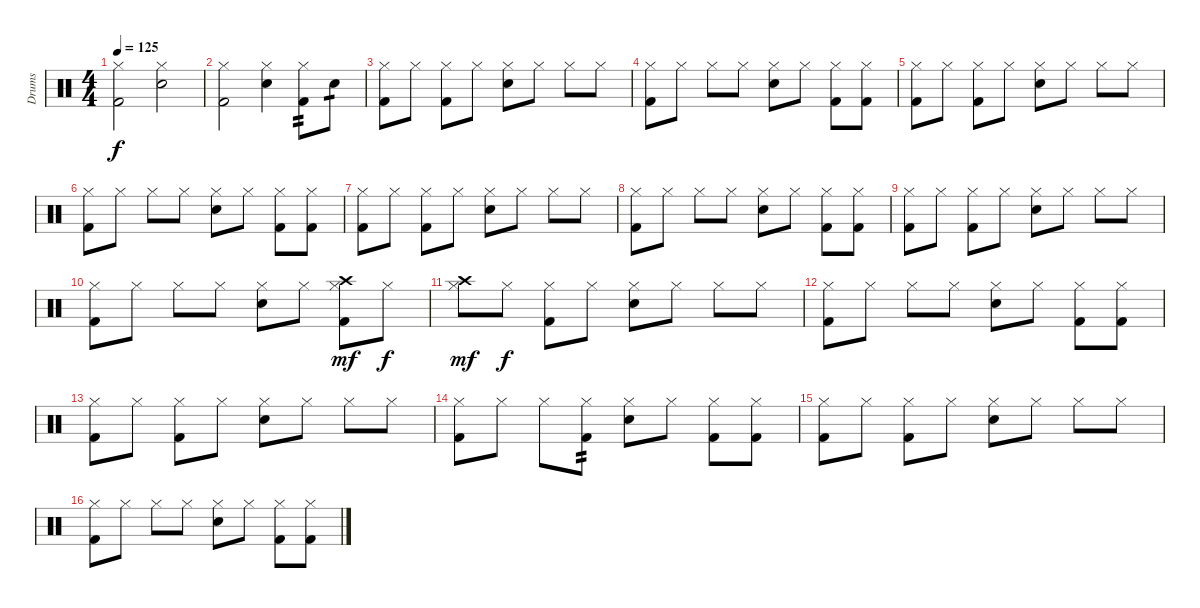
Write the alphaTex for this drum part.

\track ("Drums" "Drums") {instrument percussion}
\staff {score}
\articulation defaults
\ts (4 4)
\tempo 125
\clef neutral
\ks c
("Hi-Hat (closed)" "Kick (hit) 2").2{dy f} ("Hi-Hat (closed)" "Snare (hit) 2").2 |
("Hi-Hat (closed)" "Kick (hit) 2").2 ("Hi-Hat (closed)" "Snare (hit) 2").4 ("Hi-Hat (closed)" "Kick (hit) 2").8{tp 2} "Snare (hit) 2".8{tp 1} |
("Kick (hit) 2" "Hi-Hat (closed)").8 "Hi-Hat (closed)".8 ("Kick (hit) 2" "Hi-Hat (closed)").8 "Hi-Hat (closed)".8 ("Snare (hit) 2" "Hi-Hat (closed)").8 "Hi-Hat (closed)".8 "Hi-Hat (closed)".8 "Hi-Hat (closed)".8 |
("Kick (hit) 2" "Hi-Hat (closed)").8 "Hi-Hat (closed)".8 "Hi-Hat (closed)".8 "Hi-Hat (closed)".8 ("Snare (hit) 2" "Hi-Hat (closed)").8 "Hi-Hat (closed)".8 ("Kick (hit) 2" "Hi-Hat (closed)").8 ("Kick (hit) 2" "Hi-Hat (closed)").8 |
("Kick (hit) 2" "Hi-Hat (closed)").8 "Hi-Hat (closed)".8 ("Kick (hit) 2" "Hi-Hat (closed)").8 "Hi-Hat (closed)".8 ("Snare (hit) 2" "Hi-Hat (closed)").8 "Hi-Hat (closed)".8 "Hi-Hat (closed)".8 "Hi-Hat (closed)".8 |
("Kick (hit) 2" "Hi-Hat (closed)").8 "Hi-Hat (closed)".8 "Hi-Hat (closed)".8 "Hi-Hat (closed)".8 ("Snare (hit) 2" "Hi-Hat (closed)").8 "Hi-Hat (closed)".8 ("Kick (hit) 2" "Hi-Hat (closed)").8 ("Kick (hit) 2" "Hi-Hat (closed)").8 |
("Kick (hit) 2" "Hi-Hat (closed)").8 "Hi-Hat (closed)".8 ("Kick (hit) 2" "Hi-Hat (closed)").8 "Hi-Hat (closed)".8 ("Snare (hit) 2" "Hi-Hat (closed)").8 "Hi-Hat (closed)".8 "Hi-Hat (closed)".8 "Hi-Hat (closed)".8 |
("Kick (hit) 2" "Hi-Hat (closed)").8 "Hi-Hat (closed)".8 "Hi-Hat (closed)".8 "Hi-Hat (closed)".8 ("Snare (hit) 2" "Hi-Hat (closed)").8 "Hi-Hat (closed)".8 ("Kick (hit) 2" "Hi-Hat (closed)").8 ("Kick (hit) 2" "Hi-Hat (closed)").8 |
("Kick (hit) 2" "Hi-Hat (closed)").8 "Hi-Hat (closed)".8 ("Kick (hit) 2" "Hi-Hat (closed)").8 "Hi-Hat (closed)".8 ("Snare (hit) 2" "Hi-Hat (closed)").8 "Hi-Hat (closed)".8 "Hi-Hat (closed)".8 "Hi-Hat (closed)".8 |
("Kick (hit) 2" "Hi-Hat (closed)").8 "Hi-Hat (closed)".8 "Hi-Hat (closed)".8 "Hi-Hat (closed)".8 ("Snare (hit) 2" "Hi-Hat (closed)").8 "Hi-Hat (closed)".8 ("Kick (hit) 2" "Crash high (hit)" "Hi-Hat (closed)").8{dy mf} "Hi-Hat (closed)".8{dy f} |
("Crash high (hit)" "Hi-Hat (closed)").8{dy mf} "Hi-Hat (closed)".8{dy f} ("Kick (hit) 2" "Hi-Hat (closed)").8 "Hi-Hat (closed)".8 ("Snare (hit) 2" "Hi-Hat (closed)").8 "Hi-Hat (closed)".8 "Hi-Hat (closed)".8 "Hi-Hat (closed)".8 |
("Kick (hit) 2" "Hi-Hat (closed)").8 "Hi-Hat (closed)".8 "Hi-Hat (closed)".8 "Hi-Hat (closed)".8 ("Snare (hit) 2" "Hi-Hat (closed)").8 "Hi-Hat (closed)".8 ("Kick (hit) 2" "Hi-Hat (closed)").8 ("Kick (hit) 2" "Hi-Hat (closed)").8 |
("Kick (hit) 2" "Hi-Hat (closed)").8 "Hi-Hat (closed)".8 ("Kick (hit) 2" "Hi-Hat (closed)").8 "Hi-Hat (closed)".8 ("Snare (hit) 2" "Hi-Hat (closed)").8 "Hi-Hat (closed)".8 "Hi-Hat (closed)".8 "Hi-Hat (closed)".8 |
("Kick (hit) 2" "Hi-Hat (closed)").8 "Hi-Hat (closed)".8 "Hi-Hat (closed)".8 ("Kick (hit) 2" "Hi-Hat (closed)").8{tp 2} ("Snare (hit) 2" "Hi-Hat (closed)").8 "Hi-Hat (closed)".8 ("Kick (hit) 2" "Hi-Hat (closed)").8 ("Kick (hit) 2" "Hi-Hat (closed)").8 |
("Kick (hit) 2" "Hi-Hat (closed)").8 "Hi-Hat (closed)".8 ("Kick (hit) 2" "Hi-Hat (closed)").8 "Hi-Hat (closed)".8 ("Snare (hit) 2" "Hi-Hat (closed)").8 "Hi-Hat (closed)".8 "Hi-Hat (closed)".8 "Hi-Hat (closed)".8 |
("Kick (hit) 2" "Hi-Hat (closed)").8 "Hi-Hat (closed)".8 "Hi-Hat (closed)".8 "Hi-Hat (closed)".8 ("Snare (hit) 2" "Hi-Hat (closed)").8 "Hi-Hat (closed)".8 ("Kick (hit) 2" "Hi-Hat (closed)").8 ("Kick (hit) 2" "Hi-Hat (closed)").8
